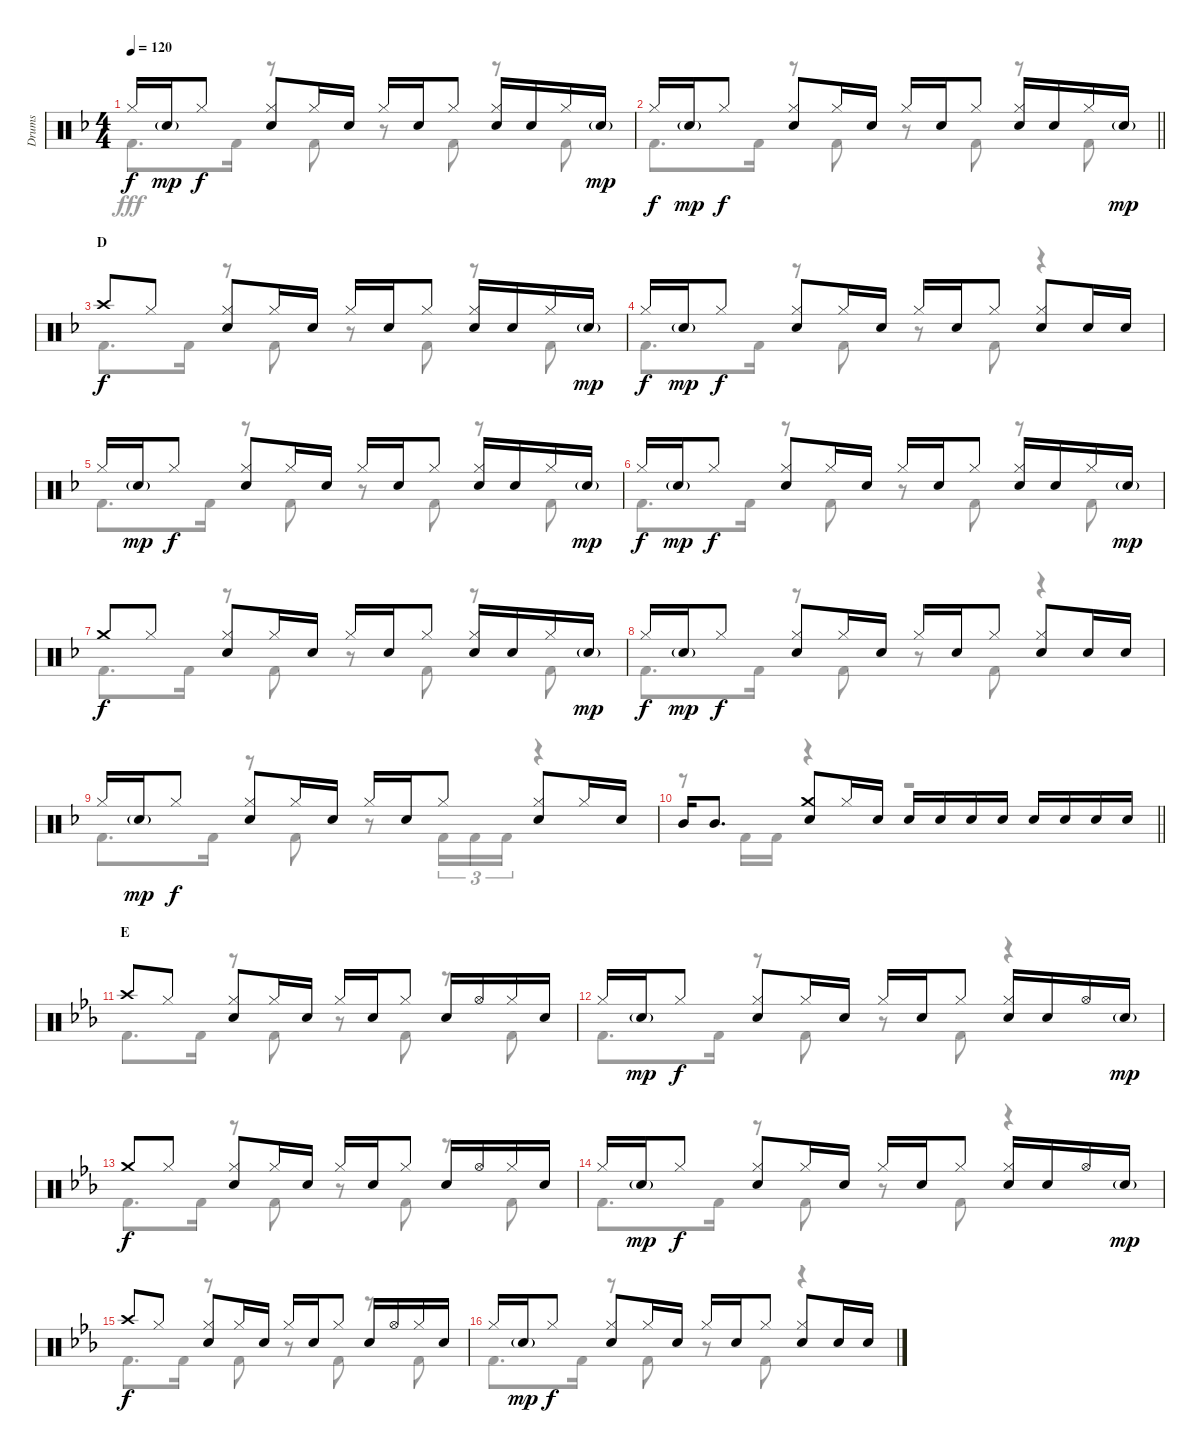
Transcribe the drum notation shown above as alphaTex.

\track ("Drums" "Drums") {instrument percussion}
\staff {score}
\articulation defaults
\voice
\ts (4 4)
\tempo 120
\clef neutral
\ks f "Hi-Hat (closed)".16{dy f} "Snare (hit) 2"{g}.16{dy mp} "Hi-Hat (closed)".8{dy f}
("Hi-Hat (closed)" "Snare (hit) 2").8 "Hi-Hat (closed)".16 "Snare (hit) 2".16 "Hi-Hat (closed)".16 "Snare (hit) 2".16 "Hi-Hat (closed)".8 ("Hi-Hat (closed)" "Snare (hit) 2").16 "Snare (hit) 2".16 "Hi-Hat (closed)".16 "Snare (hit) 2"{g}.16{dy mp} |
\barLineRight lightlight "Hi-Hat (closed)".16{dy f} "Snare (hit) 2"{g}.16{dy mp} "Hi-Hat (closed)".8{dy f}
("Hi-Hat (closed)" "Snare (hit) 2").8 "Hi-Hat (closed)".16 "Snare (hit) 2".16 "Hi-Hat (closed)".16 "Snare (hit) 2".16 "Hi-Hat (closed)".8 ("Hi-Hat (closed)" "Snare (hit) 2").16 "Snare (hit) 2".16 "Hi-Hat (closed)".16 "Snare (hit) 2"{g}.16{dy mp} |
\section ("" "D")
"Crash high (hit)".8{dy f} "Hi-Hat (closed)".8 ("Hi-Hat (closed)" "Snare (hit) 2").8 "Hi-Hat (closed)".16 "Snare (hit) 2".16 "Hi-Hat (closed)".16 "Snare (hit) 2".16 "Hi-Hat (closed)".8 ("Hi-Hat (closed)" "Snare (hit) 2").16 "Snare (hit) 2".16 "Hi-Hat (closed)".16 "Snare (hit) 2"{g}.16{dy mp} |
"Hi-Hat (closed)".16{dy f} "Snare (hit) 2"{g}.16{dy mp} "Hi-Hat (closed)".8{dy f} ("Hi-Hat (closed)" "Snare (hit) 2").8 "Hi-Hat (closed)".16 "Snare (hit) 2".16 "Hi-Hat (closed)".16 "Snare (hit) 2".16 "Hi-Hat (closed)".8 ("Hi-Hat (closed)" "Snare (hit) 2").8 "Snare (hit) 2".16 "Snare (hit) 2".16 |
"Hi-Hat (closed)".16 "Snare (hit) 2"{g}.16{dy mp} "Hi-Hat (closed)".8{dy f} ("Hi-Hat (closed)" "Snare (hit) 2").8 "Hi-Hat (closed)".16 "Snare (hit) 2".16 "Hi-Hat (closed)".16 "Snare (hit) 2".16 "Hi-Hat (closed)".8 ("Hi-Hat (closed)" "Snare (hit) 2").16 "Snare (hit) 2".16 "Hi-Hat (closed)".16 "Snare (hit) 2"{g}.16{dy mp} |
"Hi-Hat (closed)".16{dy f} "Snare (hit) 2"{g}.16{dy mp} "Hi-Hat (closed)".8{dy f} ("Hi-Hat (closed)" "Snare (hit) 2").8 "Hi-Hat (closed)".16 "Snare (hit) 2".16 "Hi-Hat (closed)".16 "Snare (hit) 2".16 "Hi-Hat (closed)".8 ("Hi-Hat (closed)" "Snare (hit) 2").16 "Snare (hit) 2".16 "Hi-Hat (closed)".16 "Snare (hit) 2"{g}.16{dy mp} |
"Crash medium (hit)".8{dy f} "Hi-Hat (closed)".8 ("Hi-Hat (closed)" "Snare (hit) 2").8 "Hi-Hat (closed)".16 "Snare (hit) 2".16 "Hi-Hat (closed)".16 "Snare (hit) 2".16 "Hi-Hat (closed)".8 ("Hi-Hat (closed)" "Snare (hit) 2").16 "Snare (hit) 2".16 "Hi-Hat (closed)".16 "Snare (hit) 2"{g}.16{dy mp} |
"Hi-Hat (closed)".16{dy f} "Snare (hit) 2"{g}.16{dy mp} "Hi-Hat (closed)".8{dy f} ("Hi-Hat (closed)" "Snare (hit) 2").8 "Hi-Hat (closed)".16 "Snare (hit) 2".16 "Hi-Hat (closed)".16 "Snare (hit) 2".16 "Hi-Hat (closed)".8 ("Hi-Hat (closed)" "Snare (hit) 2").8 "Snare (hit) 2".16 "Snare (hit) 2".16 |
"Hi-Hat (closed)".16 "Snare (hit) 2"{g}.16{dy mp} "Hi-Hat (closed)".8{dy f} ("Hi-Hat (closed)" "Snare (hit) 2").8 "Hi-Hat (closed)".16 "Snare (hit) 2".16 "Hi-Hat (closed)".16 "Snare (hit) 2".16 "Hi-Hat (closed)".8 ("Hi-Hat (closed)" "Snare (hit) 2").8 "Hi-Hat (closed)".16 "Snare (hit) 2".16 |
\barLineRight lightlight "Mid Tom (hit)".16 "Mid Tom (hit)".8{d}
("Crash medium (hit)" "Snare (hit) 2").8 "Hi-Hat (closed)".16 "Snare (hit) 2".16 "Snare (hit) 2".16 "Snare (hit) 2".16 "Snare (hit) 2".16 "Snare (hit) 2".16 "Snare (hit) 2".16 "Snare (hit) 2".16 "Snare (hit) 2".16 "Snare (hit) 2".16 |
\section ("" "E")
\ks eb "Crash high (hit)".8 "Hi-Hat (closed)".8
("Hi-Hat (closed)" "Snare (hit) 2").8 "Hi-Hat (closed)".16 "Snare (hit) 2".16 "Hi-Hat (closed)".16 "Snare (hit) 2".16 "Hi-Hat (closed)".8 "Snare (hit) 2".16 "Hi-Hat (open)".16 "Hi-Hat (closed)".16 "Snare (hit) 2".16 |
"Hi-Hat (closed)".16 "Snare (hit) 2"{g}.16{dy mp} "Hi-Hat (closed)".8{dy f} ("Hi-Hat (closed)" "Snare (hit) 2").8 "Hi-Hat (closed)".16 "Snare (hit) 2".16 "Hi-Hat (closed)".16 "Snare (hit) 2".16 "Hi-Hat (closed)".8 ("Hi-Hat (closed)" "Snare (hit) 2").16 "Snare (hit) 2".16 "Hi-Hat (open)".16 "Snare (hit) 2"{g}.16{dy mp} |
"Crash medium (hit)".8{dy f} "Hi-Hat (closed)".8 ("Hi-Hat (closed)" "Snare (hit) 2").8 "Hi-Hat (closed)".16 "Snare (hit) 2".16 "Hi-Hat (closed)".16 "Snare (hit) 2".16 "Hi-Hat (closed)".8 "Snare (hit) 2".16 "Hi-Hat (open)".16 "Hi-Hat (closed)".16 "Snare (hit) 2".16 |
"Hi-Hat (closed)".16 "Snare (hit) 2"{g}.16{dy mp} "Hi-Hat (closed)".8{dy f} ("Hi-Hat (closed)" "Snare (hit) 2").8 "Hi-Hat (closed)".16 "Snare (hit) 2".16 "Hi-Hat (closed)".16 "Snare (hit) 2".16 "Hi-Hat (closed)".8 ("Hi-Hat (closed)" "Snare (hit) 2").16 "Snare (hit) 2".16 "Hi-Hat (open)".16 "Snare (hit) 2"{g}.16{dy mp} |
"Crash high (hit)".8{dy f} "Hi-Hat (closed)".8 ("Hi-Hat (closed)" "Snare (hit) 2").8 "Hi-Hat (closed)".16 "Snare (hit) 2".16 "Hi-Hat (closed)".16 "Snare (hit) 2".16 "Hi-Hat (closed)".8 "Snare (hit) 2".16 "Hi-Hat (open)".16 "Hi-Hat (closed)".16 "Snare (hit) 2".16 |
"Hi-Hat (closed)".16 "Snare (hit) 2"{g}.16{dy mp} "Hi-Hat (closed)".8{dy f} ("Hi-Hat (closed)" "Snare (hit) 2").8 "Hi-Hat (closed)".16 "Snare (hit) 2".16 "Hi-Hat (closed)".16 "Snare (hit) 2".16 "Hi-Hat (closed)".8 ("Hi-Hat (closed)" "Snare (hit) 2").8 "Snare (hit) 2".16 "Snare (hit) 2".16
\voice
\clef neutral
\ottava regular
\simile none
\ks f "Kick (hit) 2".8{d dy fff} "Kick (hit) 2".16
r.8 "Kick (hit) 2".8 r.8 "Kick (hit) 2".8 r.8 "Kick (hit) 2".8 |
\barLineRight lightlight "Kick (hit) 2".8{d} "Kick (hit) 2".16
r.8 "Kick (hit) 2".8 r.8 "Kick (hit) 2".8 r.8 "Kick (hit) 2".8 |
"Kick (hit) 2".8{d} "Kick (hit) 2".16 r.8 "Kick (hit) 2".8 r.8 "Kick (hit) 2".8 r.8 "Kick (hit) 2".8 |
"Kick (hit) 2".8{d} "Kick (hit) 2".16 r.8 "Kick (hit) 2".8 r.8 "Kick (hit) 2".8 r.4 |
"Kick (hit) 2".8{d} "Kick (hit) 2".16 r.8 "Kick (hit) 2".8 r.8 "Kick (hit) 2".8 r.8 "Kick (hit) 2".8 |
"Kick (hit) 2".8{d} "Kick (hit) 2".16 r.8 "Kick (hit) 2".8 r.8 "Kick (hit) 2".8 r.8 "Kick (hit) 2".8 |
"Kick (hit) 2".8{d} "Kick (hit) 2".16 r.8 "Kick (hit) 2".8 r.8 "Kick (hit) 2".8 r.8 "Kick (hit) 2".8 |
"Kick (hit) 2".8{d} "Kick (hit) 2".16 r.8 "Kick (hit) 2".8 r.8 "Kick (hit) 2".8 r.4 |
"Kick (hit) 2".8{d} "Kick (hit) 2".16 r.8 "Kick (hit) 2".8 r.8 "Kick (hit) 2".16{tu (3 2)} "Kick (hit) 2".16{tu (3 2)} "Kick (hit) 2".16{tu (3 2)} r.4 |
\barLineRight lightlight
r.8 "Kick (hit) 2".16 "Kick (hit) 2".16 r.4 r.2 |
\ks eb "Kick (hit) 2".8{d} "Kick (hit) 2".16
r.8 "Kick (hit) 2".8 r.8 "Kick (hit) 2".8 r.8 "Kick (hit) 2".8 |
"Kick (hit) 2".8{d} "Kick (hit) 2".16 r.8 "Kick (hit) 2".8 r.8 "Kick (hit) 2".8 r.4 |
"Kick (hit) 2".8{d} "Kick (hit) 2".16 r.8 "Kick (hit) 2".8 r.8 "Kick (hit) 2".8 r.8 "Kick (hit) 2".8 |
"Kick (hit) 2".8{d} "Kick (hit) 2".16 r.8 "Kick (hit) 2".8 r.8 "Kick (hit) 2".8 r.4 |
"Kick (hit) 2".8{d} "Kick (hit) 2".16 r.8 "Kick (hit) 2".8 r.8 "Kick (hit) 2".8 r.8 "Kick (hit) 2".8 |
"Kick (hit) 2".8{d} "Kick (hit) 2".16 r.8 "Kick (hit) 2".8 r.8 "Kick (hit) 2".8 r.4
